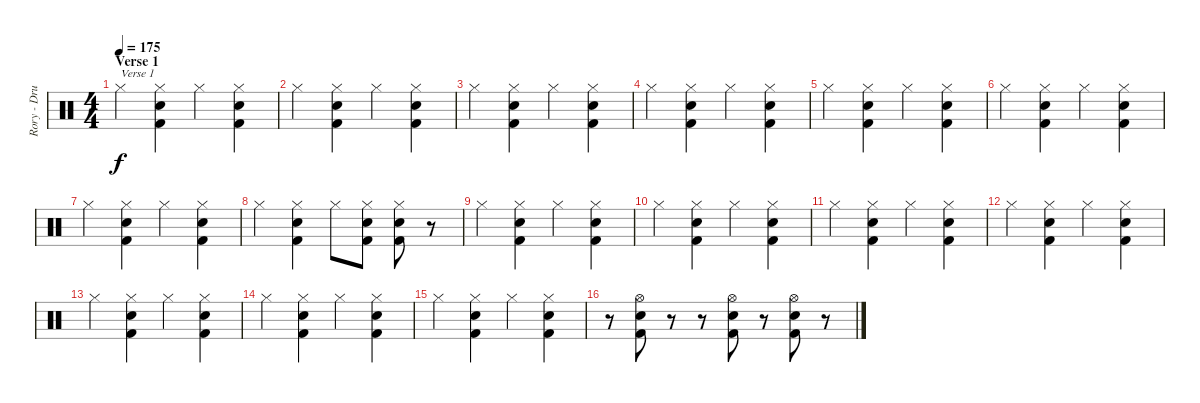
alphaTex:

\track ("Rory - Drums" "Rory - Dru") {instrument percussion}
\staff {score}
\articulation defaults
\ts (4 4)
\section ("" "Verse 1")
\tempo 175
\clef neutral
\ks c "Hi-Hat (closed)".4{txt "Verse 1" dy f}
("Hi-Hat (closed)" "Kick (hit) 2" "Snare (hit) 2").4 "Hi-Hat (closed)".4 ("Hi-Hat (closed)" "Kick (hit) 2" "Snare (hit) 2").4 |
"Hi-Hat (closed)".4 ("Hi-Hat (closed)" "Kick (hit) 2" "Snare (hit) 2").4 "Hi-Hat (closed)".4 ("Hi-Hat (closed)" "Kick (hit) 2" "Snare (hit) 2").4 |
"Hi-Hat (closed)".4 ("Hi-Hat (closed)" "Kick (hit) 2" "Snare (hit) 2").4 "Hi-Hat (closed)".4 ("Hi-Hat (closed)" "Kick (hit) 2" "Snare (hit) 2").4 |
"Hi-Hat (closed)".4 ("Hi-Hat (closed)" "Kick (hit) 2" "Snare (hit) 2").4 "Hi-Hat (closed)".4 ("Hi-Hat (closed)" "Kick (hit) 2" "Snare (hit) 2").4 |
"Hi-Hat (closed)".4 ("Hi-Hat (closed)" "Kick (hit) 2" "Snare (hit) 2").4 "Hi-Hat (closed)".4 ("Hi-Hat (closed)" "Kick (hit) 2" "Snare (hit) 2").4 |
"Hi-Hat (closed)".4 ("Hi-Hat (closed)" "Kick (hit) 2" "Snare (hit) 2").4 "Hi-Hat (closed)".4 ("Hi-Hat (closed)" "Kick (hit) 2" "Snare (hit) 2").4 |
"Hi-Hat (closed)".4 ("Hi-Hat (closed)" "Kick (hit) 2" "Snare (hit) 2").4 "Hi-Hat (closed)".4 ("Hi-Hat (closed)" "Kick (hit) 2" "Snare (hit) 2").4 |
"Hi-Hat (closed)".4 ("Hi-Hat (closed)" "Kick (hit) 2" "Snare (hit) 2").4 "Hi-Hat (closed)".8 ("Hi-Hat (closed)" "Kick (hit) 2" "Snare (hit) 2").8 ("Hi-Hat (closed)" "Kick (hit) 2" "Snare (hit) 2").8 r.8 |
"Hi-Hat (closed)".4 ("Hi-Hat (closed)" "Kick (hit) 2" "Snare (hit) 2").4 "Hi-Hat (closed)".4 ("Hi-Hat (closed)" "Kick (hit) 2" "Snare (hit) 2").4 |
"Hi-Hat (closed)".4 ("Hi-Hat (closed)" "Kick (hit) 2" "Snare (hit) 2").4 "Hi-Hat (closed)".4 ("Hi-Hat (closed)" "Kick (hit) 2" "Snare (hit) 2").4 |
"Hi-Hat (closed)".4 ("Hi-Hat (closed)" "Kick (hit) 2" "Snare (hit) 2").4 "Hi-Hat (closed)".4 ("Hi-Hat (closed)" "Kick (hit) 2" "Snare (hit) 2").4 |
"Hi-Hat (closed)".4 ("Hi-Hat (closed)" "Kick (hit) 2" "Snare (hit) 2").4 "Hi-Hat (closed)".4 ("Hi-Hat (closed)" "Kick (hit) 2" "Snare (hit) 2").4 |
"Hi-Hat (closed)".4 ("Hi-Hat (closed)" "Kick (hit) 2" "Snare (hit) 2").4 "Hi-Hat (closed)".4 ("Hi-Hat (closed)" "Kick (hit) 2" "Snare (hit) 2").4 |
"Hi-Hat (closed)".4 ("Hi-Hat (closed)" "Kick (hit) 2" "Snare (hit) 2").4 "Hi-Hat (closed)".4 ("Hi-Hat (closed)" "Kick (hit) 2" "Snare (hit) 2").4 |
"Hi-Hat (closed)".4 ("Hi-Hat (closed)" "Kick (hit) 2" "Snare (hit) 2").4 "Hi-Hat (closed)".4 ("Hi-Hat (closed)" "Kick (hit) 2" "Snare (hit) 2").4 |
r.8 ("Kick (hit) 2" "Hi-Hat (open)" "Snare (hit) 2").8 r.8 r.8 ("Kick (hit) 2" "Hi-Hat (open)" "Snare (hit) 2").8 r.8 ("Kick (hit) 2" "Hi-Hat (open)" "Snare (hit) 2").8 r.8
